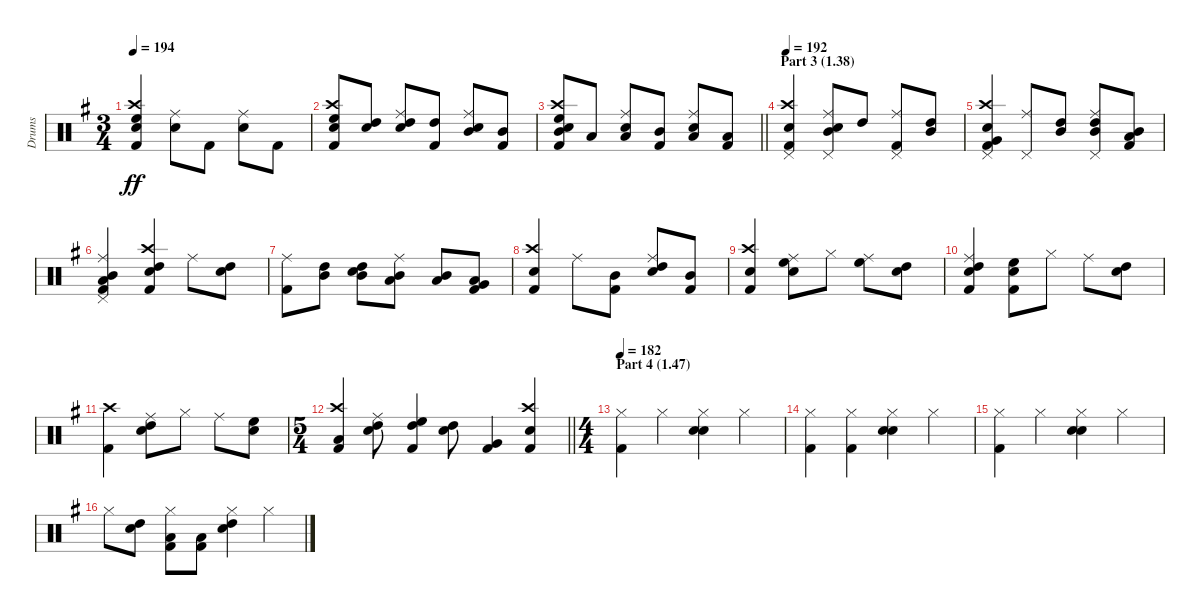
\track ("Drums" "Drums") {instrument percussion}
\staff {score}
\articulation defaults
\ts (3 4)
\tempo 194
\clef neutral
\ks g
("Kick (hit) 2" "Crash high (hit)" "High Floor Tom (hit)" "Electric Snare (hit)").4{dy ff} ("Ride (middle)" "Electric Snare (hit)").8 "Kick (hit) 2".8 ("Ride (middle)" "Electric Snare (hit)").8 "Kick (hit) 2".8 |
("Kick (hit) 2" "Crash high (hit)" "High Floor Tom (hit)" "Electric Snare (hit)").8 ("Electric Snare (hit)" "High Tom (hit)").8 ("High Tom (hit)" "Ride (middle)" "Electric Snare (hit)").8 ("High Tom (hit)" "Kick (hit) 2").8 ("Mid Tom (hit)" "Ride (middle)" "Electric Snare (hit)").8 ("Mid Tom (hit)" "Kick (hit) 2").8 |
\barLineRight lightlight
("Mid Tom (hit)" "Kick (hit) 2" "Crash high (hit)" "High Floor Tom (hit)" "Electric Snare (hit)").8 "Low Tom (hit)".8 ("Low Tom (hit)" "Ride (middle)" "Electric Snare (hit)").8 ("Mid Tom (hit)" "Kick (hit) 2").8 ("Low Tom (hit)" "Ride (middle)" "Electric Snare (hit)").8 ("Low Tom (hit)" "Kick (hit) 2").8 |
\section ("" "Part 3 (1.38)")
\tempo 192
("Pedal Hi-Hat (hit)" "Crash high (hit)" "Electric Snare (hit)" "Kick (hit) 2").4 ("Pedal Hi-Hat (hit)" "Mid Tom (hit)" "Electric Snare (hit)" "Ride (middle)").8 "High Tom (hit)".8 ("Pedal Hi-Hat (hit)" "Kick (hit) 2" "Ride (middle)").8 ("High Tom (hit)" "Mid Tom (hit)").8 |
("Pedal Hi-Hat (hit)" "Very Low Tom (hit)" "Crash high (hit)" "Electric Snare (hit)" "Kick (hit) 2").4 ("Pedal Hi-Hat (hit)" "Ride (middle)").8 ("High Tom (hit)" "Mid Tom (hit)").8 ("Ride (middle)" "High Tom (hit)" "Mid Tom (hit)" "Pedal Hi-Hat (hit)").8 ("Mid Tom (hit)" "Kick (hit) 2" "Low Tom (hit)").8 |
("Pedal Hi-Hat (hit)" "Ride (middle)" "Mid Tom (hit)" "Kick (hit) 2" "Low Tom (hit)").4 ("High Tom (hit)" "Electric Snare (hit)" "Kick (hit) 2" "Crash high (hit)").4 "Ride (middle)".8 ("High Tom (hit)" "Electric Snare (hit)").8 |
("Ride (middle)" "Kick (hit) 2").8 ("Mid Tom (hit)" "High Tom (hit)").8 ("Electric Snare (hit)" "Mid Tom (hit)" "High Tom (hit)").8 ("Mid Tom (hit)" "Ride (middle)" "Low Tom (hit)").8 ("Mid Tom (hit)" "Low Tom (hit)").8 ("Very Low Tom (hit)" "Kick (hit) 2" "Low Tom (hit)").8 |
("Electric Snare (hit)" "Crash high (hit)" "Kick (hit) 2").4 "Ride (middle)".8 ("Mid Tom (hit)" "Kick (hit) 2").8 ("High Tom (hit)" "Electric Snare (hit)" "Ride (middle)").8 ("Mid Tom (hit)" "Kick (hit) 2").8 |
("Kick (hit) 2" "Crash high (hit)" "Electric Snare (hit)").4 ("Ride (middle)" "High Floor Tom (hit)" "Electric Snare (hit)").8 "Hi-Hat (closed)".8 ("Ride (middle)" "High Floor Tom (hit)").8 ("Electric Snare (hit)" "High Tom (hit)").8 |
("Ride (middle)" "Kick (hit) 2" "Electric Snare (hit)" "High Tom (hit)").4 ("High Floor Tom (hit)" "Electric Snare (hit)" "Kick (hit) 2").8 "Hi-Hat (closed)".8 "Ride (middle)".8 ("Electric Snare (hit)" "High Tom (hit)").8 |
("Crash high (hit)" "Kick (hit) 2").4 ("Ride (middle)" "High Tom (hit)" "Electric Snare (hit)").8 "Hi-Hat (closed)".8 "Ride (middle)".8 ("High Floor Tom (hit)" "Electric Snare (hit)").8 |
\ts (5 4)
\barLineRight lightlight
("Low Tom (hit)" "Crash high (hit)" "Kick (hit) 2").4 ("High Tom (hit)" "Electric Snare (hit)" "Ride (middle)").8 ("High Tom (hit)" "High Floor Tom (hit)" "Kick (hit) 2").4 ("Electric Snare (hit)" "High Tom (hit)").8 ("Very Low Tom (hit)" "Kick (hit) 2").4 ("Kick (hit) 2" "Electric Snare (hit)" "Crash high (hit)").4 |
\ts (4 4)
\section ("" "Part 4 (1.47)")
\tempo 182
("Hi-Hat (closed)" "Kick (hit) 2").4 "Hi-Hat (closed)".4 ("Hi-Hat (closed)" "Electric Snare (hit)" "Snare (hit) 2").4 "Hi-Hat (closed)".4 |
("Hi-Hat (closed)" "Kick (hit) 2").4 ("Hi-Hat (closed)" "Kick (hit) 2").4 ("Hi-Hat (closed)" "Electric Snare (hit)" "Snare (hit) 2").4 "Hi-Hat (closed)".4 |
("Hi-Hat (closed)" "Kick (hit) 2").4 "Hi-Hat (closed)".4 ("Hi-Hat (closed)" "Snare (hit) 2" "Electric Snare (hit)").4 "Hi-Hat (closed)".4 |
"Hi-Hat (closed)".8 ("Electric Snare (hit)" "High Tom (hit)").8 ("Low Tom (hit)" "Kick (hit) 2" "Hi-Hat (closed)").8 ("Low Tom (hit)" "Kick (hit) 2").8 ("Electric Snare (hit)" "Hi-Hat (closed)" "High Tom (hit)").4 "Hi-Hat (closed)".4
